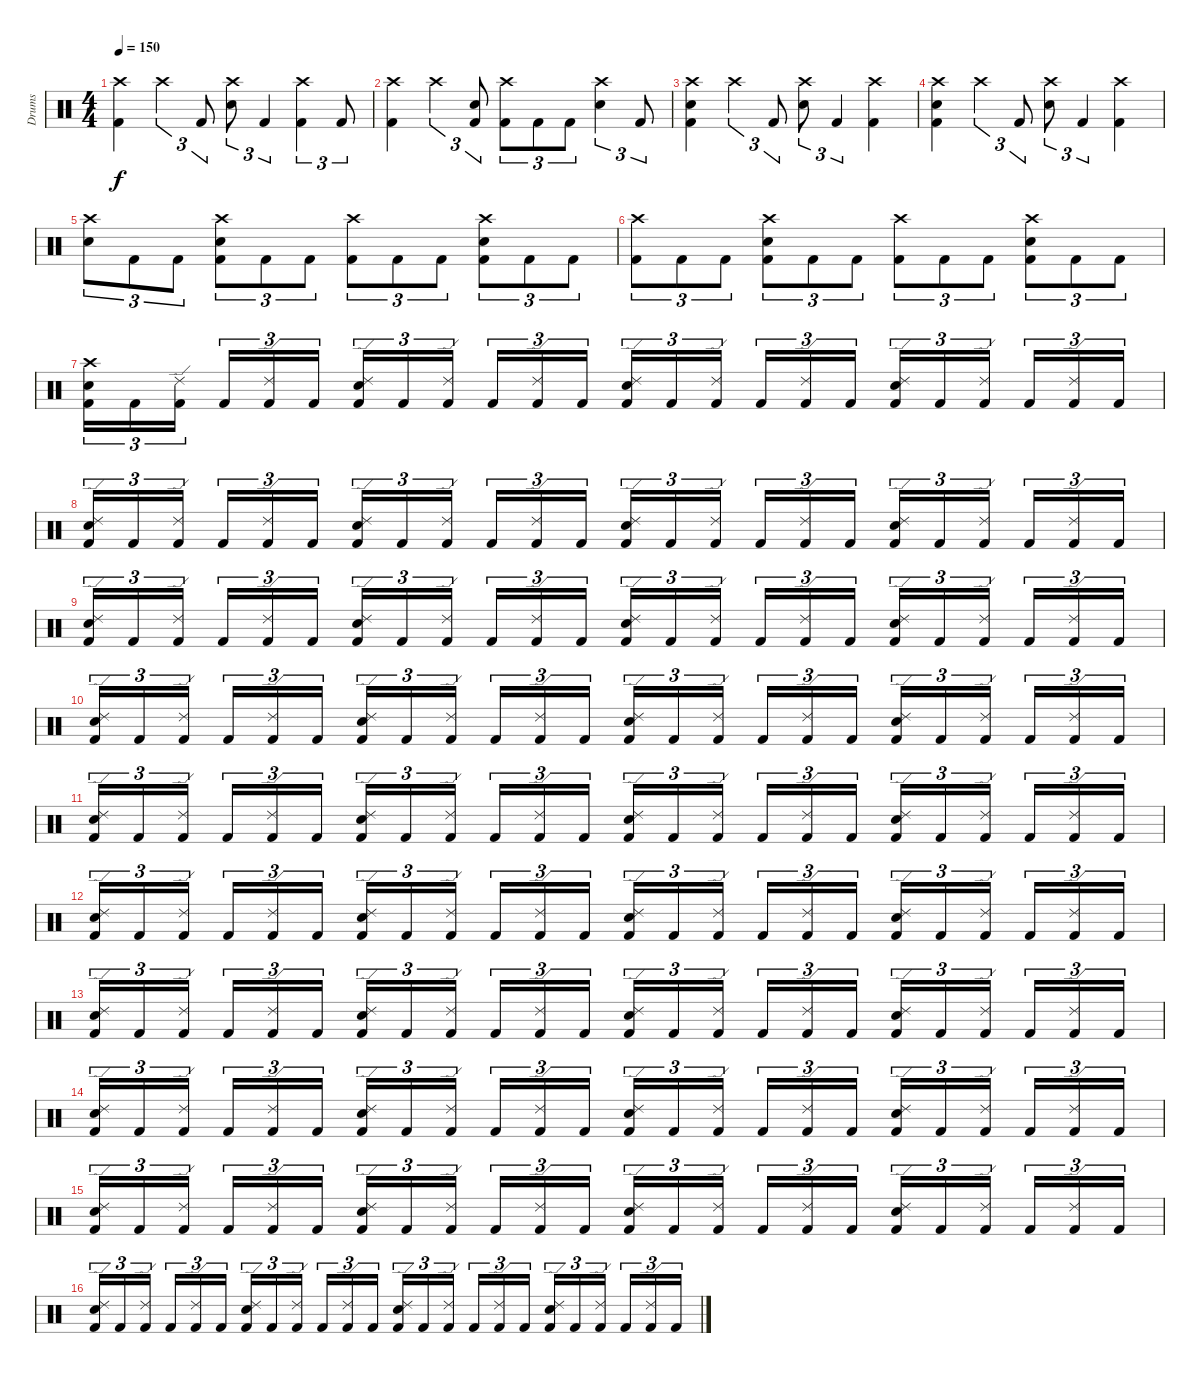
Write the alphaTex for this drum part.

\track ("Drums" "Drums") {instrument percussion}
\staff {score}
\articulation defaults
\ts (4 4)
\tempo 150
\clef neutral
\ks c
("Crash high (hit)" "Kick (hit) 2").4{dy f} "Crash high (hit)".4{tu (3 2)} "Kick (hit) 2".8{tu (3 2)} ("Crash high (hit)" "Electric Snare (hit)").8{tu (3 2)} "Kick (hit) 2".4{tu (3 2)} ("Crash high (hit)" "Kick (hit) 2").4{tu (3 2)} "Kick (hit) 2".8{tu (3 2)} |
("Crash high (hit)" "Kick (hit) 2").4 "Crash high (hit)".4{tu (3 2)} ("Electric Snare (hit)" "Kick (hit) 2").8{tu (3 2)} ("Crash high (hit)" "Kick (hit) 2").8{tu (3 2)} "Kick (hit) 2".8{tu (3 2)} "Kick (hit) 2".8{tu (3 2)} ("Crash high (hit)" "Electric Snare (hit)").4{tu (3 2)} "Kick (hit) 2".8{tu (3 2)} |
("Crash high (hit)" "Electric Snare (hit)" "Kick (hit) 2").4 "Crash high (hit)".4{tu (3 2)} "Kick (hit) 2".8{tu (3 2)} ("Crash high (hit)" "Electric Snare (hit)").8{tu (3 2)} "Kick (hit) 2".4{tu (3 2)} ("Crash high (hit)" "Kick (hit) 2").4 |
("Crash high (hit)" "Electric Snare (hit)" "Kick (hit) 2").4 "Crash high (hit)".4{tu (3 2)} "Kick (hit) 2".8{tu (3 2)} ("Crash high (hit)" "Electric Snare (hit)").8{tu (3 2)} "Kick (hit) 2".4{tu (3 2)} ("Crash high (hit)" "Kick (hit) 2").4 |
("Crash high (hit)" "Electric Snare (hit)").8{tu (3 2)} "Kick (hit) 2".8{tu (3 2)} "Kick (hit) 2".8{tu (3 2)} ("Crash high (hit)" "Electric Snare (hit)" "Kick (hit) 2").8{tu (3 2)} "Kick (hit) 2".8{tu (3 2)} "Kick (hit) 2".8{tu (3 2)} ("Crash high (hit)" "Kick (hit) 2").8{tu (3 2)} "Kick (hit) 2".8{tu (3 2)} "Kick (hit) 2".8{tu (3 2)} ("Crash high (hit)" "Electric Snare (hit)" "Kick (hit) 2").8{tu (3 2)} "Kick (hit) 2".8{tu (3 2)} "Kick (hit) 2".8{tu (3 2)} |
("Crash high (hit)" "Kick (hit) 2").8{tu (3 2)} "Kick (hit) 2".8{tu (3 2)} "Kick (hit) 2".8{tu (3 2)} ("Crash high (hit)" "Electric Snare (hit)" "Kick (hit) 2").8{tu (3 2)} "Kick (hit) 2".8{tu (3 2)} "Kick (hit) 2".8{tu (3 2)} ("Crash high (hit)" "Kick (hit) 2").8{tu (3 2)} "Kick (hit) 2".8{tu (3 2)} "Kick (hit) 2".8{tu (3 2)} ("Crash high (hit)" "Electric Snare (hit)" "Kick (hit) 2").8{tu (3 2)} "Kick (hit) 2".8{tu (3 2)} "Kick (hit) 2".8{tu (3 2)} |
("Crash high (hit)" "Electric Snare (hit)" "Kick (hit) 2").16{tu (3 2)} "Kick (hit) 2".16{tu (3 2)} ("Ride (edge) 2" "Kick (hit) 2").16{tu (3 2)} "Kick (hit) 2".16{tu (3 2)} ("Ride (edge) 2" "Kick (hit) 2").16{tu (3 2)} "Kick (hit) 2".16{tu (3 2)} ("Ride (edge) 2" "Electric Snare (hit)" "Kick (hit) 2").16{tu (3 2)} "Kick (hit) 2".16{tu (3 2)} ("Ride (edge) 2" "Kick (hit) 2").16{tu (3 2)} "Kick (hit) 2".16{tu (3 2)} ("Ride (edge) 2" "Kick (hit) 2").16{tu (3 2)} "Kick (hit) 2".16{tu (3 2)} ("Ride (edge) 2" "Electric Snare (hit)" "Kick (hit) 2").16{tu (3 2)} "Kick (hit) 2".16{tu (3 2)} ("Ride (edge) 2" "Kick (hit) 2").16{tu (3 2)} "Kick (hit) 2".16{tu (3 2)} ("Ride (edge) 2" "Kick (hit) 2").16{tu (3 2)} "Kick (hit) 2".16{tu (3 2)} ("Ride (edge) 2" "Electric Snare (hit)" "Kick (hit) 2").16{tu (3 2)} "Kick (hit) 2".16{tu (3 2)} ("Ride (edge) 2" "Kick (hit) 2").16{tu (3 2)} "Kick (hit) 2".16{tu (3 2)} ("Ride (edge) 2" "Kick (hit) 2").16{tu (3 2)} "Kick (hit) 2".16{tu (3 2)} |
("Ride (edge) 2" "Electric Snare (hit)" "Kick (hit) 2").16{tu (3 2)} "Kick (hit) 2".16{tu (3 2)} ("Ride (edge) 2" "Kick (hit) 2").16{tu (3 2)} "Kick (hit) 2".16{tu (3 2)} ("Ride (edge) 2" "Kick (hit) 2").16{tu (3 2)} "Kick (hit) 2".16{tu (3 2)} ("Ride (edge) 2" "Electric Snare (hit)" "Kick (hit) 2").16{tu (3 2)} "Kick (hit) 2".16{tu (3 2)} ("Ride (edge) 2" "Kick (hit) 2").16{tu (3 2)} "Kick (hit) 2".16{tu (3 2)} ("Ride (edge) 2" "Kick (hit) 2").16{tu (3 2)} "Kick (hit) 2".16{tu (3 2)} ("Ride (edge) 2" "Electric Snare (hit)" "Kick (hit) 2").16{tu (3 2)} "Kick (hit) 2".16{tu (3 2)} ("Ride (edge) 2" "Kick (hit) 2").16{tu (3 2)} "Kick (hit) 2".16{tu (3 2)} ("Ride (edge) 2" "Kick (hit) 2").16{tu (3 2)} "Kick (hit) 2".16{tu (3 2)} ("Ride (edge) 2" "Electric Snare (hit)" "Kick (hit) 2").16{tu (3 2)} "Kick (hit) 2".16{tu (3 2)} ("Ride (edge) 2" "Kick (hit) 2").16{tu (3 2)} "Kick (hit) 2".16{tu (3 2)} ("Ride (edge) 2" "Kick (hit) 2").16{tu (3 2)} "Kick (hit) 2".16{tu (3 2)} |
("Ride (edge) 2" "Electric Snare (hit)" "Kick (hit) 2").16{tu (3 2)} "Kick (hit) 2".16{tu (3 2)} ("Ride (edge) 2" "Kick (hit) 2").16{tu (3 2)} "Kick (hit) 2".16{tu (3 2)} ("Ride (edge) 2" "Kick (hit) 2").16{tu (3 2)} "Kick (hit) 2".16{tu (3 2)} ("Ride (edge) 2" "Electric Snare (hit)" "Kick (hit) 2").16{tu (3 2)} "Kick (hit) 2".16{tu (3 2)} ("Ride (edge) 2" "Kick (hit) 2").16{tu (3 2)} "Kick (hit) 2".16{tu (3 2)} ("Ride (edge) 2" "Kick (hit) 2").16{tu (3 2)} "Kick (hit) 2".16{tu (3 2)} ("Ride (edge) 2" "Electric Snare (hit)" "Kick (hit) 2").16{tu (3 2)} "Kick (hit) 2".16{tu (3 2)} ("Ride (edge) 2" "Kick (hit) 2").16{tu (3 2)} "Kick (hit) 2".16{tu (3 2)} ("Ride (edge) 2" "Kick (hit) 2").16{tu (3 2)} "Kick (hit) 2".16{tu (3 2)} ("Ride (edge) 2" "Electric Snare (hit)" "Kick (hit) 2").16{tu (3 2)} "Kick (hit) 2".16{tu (3 2)} ("Ride (edge) 2" "Kick (hit) 2").16{tu (3 2)} "Kick (hit) 2".16{tu (3 2)} ("Ride (edge) 2" "Kick (hit) 2").16{tu (3 2)} "Kick (hit) 2".16{tu (3 2)} |
("Ride (edge) 2" "Electric Snare (hit)" "Kick (hit) 2").16{tu (3 2)} "Kick (hit) 2".16{tu (3 2)} ("Ride (edge) 2" "Kick (hit) 2").16{tu (3 2)} "Kick (hit) 2".16{tu (3 2)} ("Ride (edge) 2" "Kick (hit) 2").16{tu (3 2)} "Kick (hit) 2".16{tu (3 2)} ("Ride (edge) 2" "Electric Snare (hit)" "Kick (hit) 2").16{tu (3 2)} "Kick (hit) 2".16{tu (3 2)} ("Ride (edge) 2" "Kick (hit) 2").16{tu (3 2)} "Kick (hit) 2".16{tu (3 2)} ("Ride (edge) 2" "Kick (hit) 2").16{tu (3 2)} "Kick (hit) 2".16{tu (3 2)} ("Ride (edge) 2" "Electric Snare (hit)" "Kick (hit) 2").16{tu (3 2)} "Kick (hit) 2".16{tu (3 2)} ("Ride (edge) 2" "Kick (hit) 2").16{tu (3 2)} "Kick (hit) 2".16{tu (3 2)} ("Ride (edge) 2" "Kick (hit) 2").16{tu (3 2)} "Kick (hit) 2".16{tu (3 2)} ("Ride (edge) 2" "Electric Snare (hit)" "Kick (hit) 2").16{tu (3 2)} "Kick (hit) 2".16{tu (3 2)} ("Ride (edge) 2" "Kick (hit) 2").16{tu (3 2)} "Kick (hit) 2".16{tu (3 2)} ("Ride (edge) 2" "Kick (hit) 2").16{tu (3 2)} "Kick (hit) 2".16{tu (3 2)} |
("Ride (edge) 2" "Electric Snare (hit)" "Kick (hit) 2").16{tu (3 2)} "Kick (hit) 2".16{tu (3 2)} ("Ride (edge) 2" "Kick (hit) 2").16{tu (3 2)} "Kick (hit) 2".16{tu (3 2)} ("Ride (edge) 2" "Kick (hit) 2").16{tu (3 2)} "Kick (hit) 2".16{tu (3 2)} ("Ride (edge) 2" "Electric Snare (hit)" "Kick (hit) 2").16{tu (3 2)} "Kick (hit) 2".16{tu (3 2)} ("Ride (edge) 2" "Kick (hit) 2").16{tu (3 2)} "Kick (hit) 2".16{tu (3 2)} ("Ride (edge) 2" "Kick (hit) 2").16{tu (3 2)} "Kick (hit) 2".16{tu (3 2)} ("Ride (edge) 2" "Electric Snare (hit)" "Kick (hit) 2").16{tu (3 2)} "Kick (hit) 2".16{tu (3 2)} ("Ride (edge) 2" "Kick (hit) 2").16{tu (3 2)} "Kick (hit) 2".16{tu (3 2)} ("Ride (edge) 2" "Kick (hit) 2").16{tu (3 2)} "Kick (hit) 2".16{tu (3 2)} ("Ride (edge) 2" "Electric Snare (hit)" "Kick (hit) 2").16{tu (3 2)} "Kick (hit) 2".16{tu (3 2)} ("Ride (edge) 2" "Kick (hit) 2").16{tu (3 2)} "Kick (hit) 2".16{tu (3 2)} ("Ride (edge) 2" "Kick (hit) 2").16{tu (3 2)} "Kick (hit) 2".16{tu (3 2)} |
("Ride (edge) 2" "Electric Snare (hit)" "Kick (hit) 2").16{tu (3 2)} "Kick (hit) 2".16{tu (3 2)} ("Ride (edge) 2" "Kick (hit) 2").16{tu (3 2)} "Kick (hit) 2".16{tu (3 2)} ("Ride (edge) 2" "Kick (hit) 2").16{tu (3 2)} "Kick (hit) 2".16{tu (3 2)} ("Ride (edge) 2" "Electric Snare (hit)" "Kick (hit) 2").16{tu (3 2)} "Kick (hit) 2".16{tu (3 2)} ("Ride (edge) 2" "Kick (hit) 2").16{tu (3 2)} "Kick (hit) 2".16{tu (3 2)} ("Ride (edge) 2" "Kick (hit) 2").16{tu (3 2)} "Kick (hit) 2".16{tu (3 2)} ("Ride (edge) 2" "Electric Snare (hit)" "Kick (hit) 2").16{tu (3 2)} "Kick (hit) 2".16{tu (3 2)} ("Ride (edge) 2" "Kick (hit) 2").16{tu (3 2)} "Kick (hit) 2".16{tu (3 2)} ("Ride (edge) 2" "Kick (hit) 2").16{tu (3 2)} "Kick (hit) 2".16{tu (3 2)} ("Ride (edge) 2" "Electric Snare (hit)" "Kick (hit) 2").16{tu (3 2)} "Kick (hit) 2".16{tu (3 2)} ("Ride (edge) 2" "Kick (hit) 2").16{tu (3 2)} "Kick (hit) 2".16{tu (3 2)} ("Ride (edge) 2" "Kick (hit) 2").16{tu (3 2)} "Kick (hit) 2".16{tu (3 2)} |
("Ride (edge) 2" "Electric Snare (hit)" "Kick (hit) 2").16{tu (3 2)} "Kick (hit) 2".16{tu (3 2)} ("Ride (edge) 2" "Kick (hit) 2").16{tu (3 2)} "Kick (hit) 2".16{tu (3 2)} ("Ride (edge) 2" "Kick (hit) 2").16{tu (3 2)} "Kick (hit) 2".16{tu (3 2)} ("Ride (edge) 2" "Electric Snare (hit)" "Kick (hit) 2").16{tu (3 2)} "Kick (hit) 2".16{tu (3 2)} ("Ride (edge) 2" "Kick (hit) 2").16{tu (3 2)} "Kick (hit) 2".16{tu (3 2)} ("Ride (edge) 2" "Kick (hit) 2").16{tu (3 2)} "Kick (hit) 2".16{tu (3 2)} ("Ride (edge) 2" "Electric Snare (hit)" "Kick (hit) 2").16{tu (3 2)} "Kick (hit) 2".16{tu (3 2)} ("Ride (edge) 2" "Kick (hit) 2").16{tu (3 2)} "Kick (hit) 2".16{tu (3 2)} ("Ride (edge) 2" "Kick (hit) 2").16{tu (3 2)} "Kick (hit) 2".16{tu (3 2)} ("Ride (edge) 2" "Electric Snare (hit)" "Kick (hit) 2").16{tu (3 2)} "Kick (hit) 2".16{tu (3 2)} ("Ride (edge) 2" "Kick (hit) 2").16{tu (3 2)} "Kick (hit) 2".16{tu (3 2)} ("Ride (edge) 2" "Kick (hit) 2").16{tu (3 2)} "Kick (hit) 2".16{tu (3 2)} |
("Ride (edge) 2" "Electric Snare (hit)" "Kick (hit) 2").16{tu (3 2)} "Kick (hit) 2".16{tu (3 2)} ("Ride (edge) 2" "Kick (hit) 2").16{tu (3 2)} "Kick (hit) 2".16{tu (3 2)} ("Ride (edge) 2" "Kick (hit) 2").16{tu (3 2)} "Kick (hit) 2".16{tu (3 2)} ("Ride (edge) 2" "Electric Snare (hit)" "Kick (hit) 2").16{tu (3 2)} "Kick (hit) 2".16{tu (3 2)} ("Ride (edge) 2" "Kick (hit) 2").16{tu (3 2)} "Kick (hit) 2".16{tu (3 2)} ("Ride (edge) 2" "Kick (hit) 2").16{tu (3 2)} "Kick (hit) 2".16{tu (3 2)} ("Ride (edge) 2" "Electric Snare (hit)" "Kick (hit) 2").16{tu (3 2)} "Kick (hit) 2".16{tu (3 2)} ("Ride (edge) 2" "Kick (hit) 2").16{tu (3 2)} "Kick (hit) 2".16{tu (3 2)} ("Ride (edge) 2" "Kick (hit) 2").16{tu (3 2)} "Kick (hit) 2".16{tu (3 2)} ("Ride (edge) 2" "Electric Snare (hit)" "Kick (hit) 2").16{tu (3 2)} "Kick (hit) 2".16{tu (3 2)} ("Ride (edge) 2" "Kick (hit) 2").16{tu (3 2)} "Kick (hit) 2".16{tu (3 2)} ("Ride (edge) 2" "Kick (hit) 2").16{tu (3 2)} "Kick (hit) 2".16{tu (3 2)} |
("Ride (edge) 2" "Electric Snare (hit)" "Kick (hit) 2").16{tu (3 2)} "Kick (hit) 2".16{tu (3 2)} ("Ride (edge) 2" "Kick (hit) 2").16{tu (3 2)} "Kick (hit) 2".16{tu (3 2)} ("Ride (edge) 2" "Kick (hit) 2").16{tu (3 2)} "Kick (hit) 2".16{tu (3 2)} ("Ride (edge) 2" "Electric Snare (hit)" "Kick (hit) 2").16{tu (3 2)} "Kick (hit) 2".16{tu (3 2)} ("Ride (edge) 2" "Kick (hit) 2").16{tu (3 2)} "Kick (hit) 2".16{tu (3 2)} ("Ride (edge) 2" "Kick (hit) 2").16{tu (3 2)} "Kick (hit) 2".16{tu (3 2)} ("Ride (edge) 2" "Electric Snare (hit)" "Kick (hit) 2").16{tu (3 2)} "Kick (hit) 2".16{tu (3 2)} ("Ride (edge) 2" "Kick (hit) 2").16{tu (3 2)} "Kick (hit) 2".16{tu (3 2)} ("Ride (edge) 2" "Kick (hit) 2").16{tu (3 2)} "Kick (hit) 2".16{tu (3 2)} ("Ride (edge) 2" "Electric Snare (hit)" "Kick (hit) 2").16{tu (3 2)} "Kick (hit) 2".16{tu (3 2)} ("Ride (edge) 2" "Kick (hit) 2").16{tu (3 2)} "Kick (hit) 2".16{tu (3 2)} ("Ride (edge) 2" "Kick (hit) 2").16{tu (3 2)} "Kick (hit) 2".16{tu (3 2)} |
("Ride (edge) 2" "Electric Snare (hit)" "Kick (hit) 2").16{tu (3 2)} "Kick (hit) 2".16{tu (3 2)} ("Ride (edge) 2" "Kick (hit) 2").16{tu (3 2)} "Kick (hit) 2".16{tu (3 2)} ("Ride (edge) 2" "Kick (hit) 2").16{tu (3 2)} "Kick (hit) 2".16{tu (3 2)} ("Ride (edge) 2" "Electric Snare (hit)" "Kick (hit) 2").16{tu (3 2)} "Kick (hit) 2".16{tu (3 2)} ("Ride (edge) 2" "Kick (hit) 2").16{tu (3 2)} "Kick (hit) 2".16{tu (3 2)} ("Ride (edge) 2" "Kick (hit) 2").16{tu (3 2)} "Kick (hit) 2".16{tu (3 2)} ("Ride (edge) 2" "Electric Snare (hit)" "Kick (hit) 2").16{tu (3 2)} "Kick (hit) 2".16{tu (3 2)} ("Ride (edge) 2" "Kick (hit) 2").16{tu (3 2)} "Kick (hit) 2".16{tu (3 2)} ("Ride (edge) 2" "Kick (hit) 2").16{tu (3 2)} "Kick (hit) 2".16{tu (3 2)} ("Ride (edge) 2" "Electric Snare (hit)" "Kick (hit) 2").16{tu (3 2)} "Kick (hit) 2".16{tu (3 2)} ("Ride (edge) 2" "Kick (hit) 2").16{tu (3 2)} "Kick (hit) 2".16{tu (3 2)} ("Ride (edge) 2" "Kick (hit) 2").16{tu (3 2)} "Kick (hit) 2".16{tu (3 2)}
